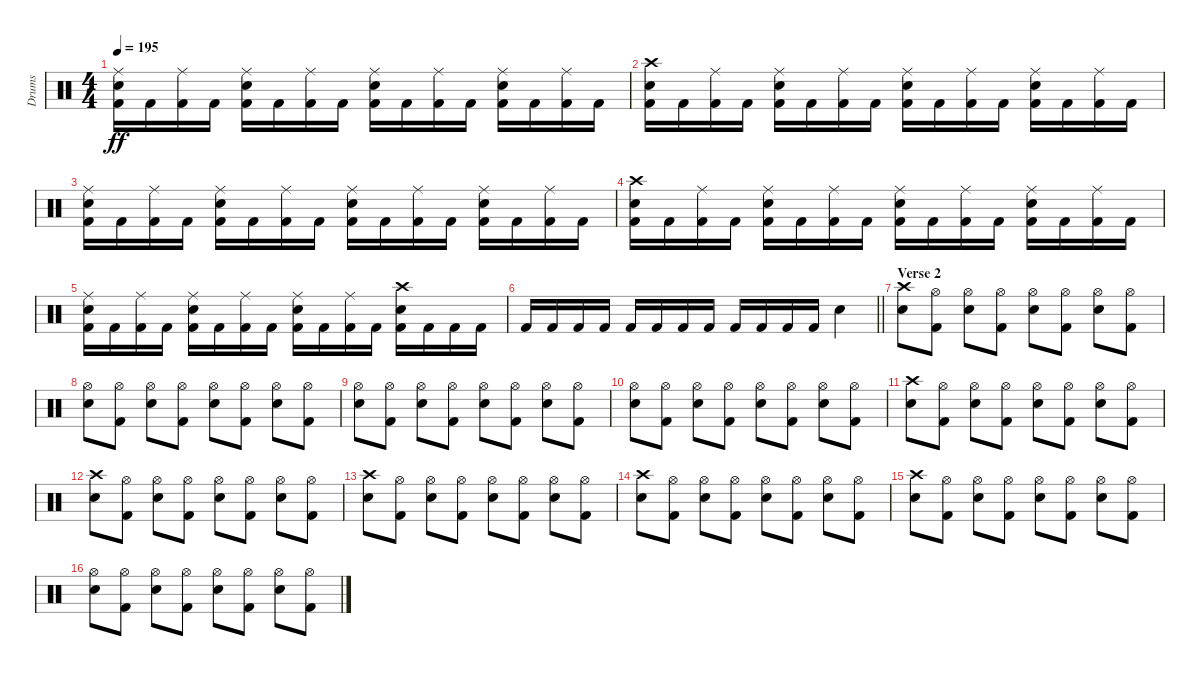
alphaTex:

\track ("Drums" "Drums") {instrument percussion}
\staff {score}
\articulation defaults
\ts (4 4)
\tempo 195
\clef neutral
\ks c
("Ride (middle)" "Snare (hit) 2" "Kick (hit) 2").16{dy ff} "Kick (hit) 2".16 ("Ride (middle)" "Kick (hit) 2").16 "Kick (hit) 2".16 ("Ride (middle)" "Snare (hit) 2" "Kick (hit) 2").16 "Kick (hit) 2".16 ("Ride (middle)" "Kick (hit) 2").16 "Kick (hit) 2".16 ("Ride (middle)" "Snare (hit) 2" "Kick (hit) 2").16 "Kick (hit) 2".16 ("Ride (middle)" "Kick (hit) 2").16 "Kick (hit) 2".16 ("Ride (middle)" "Snare (hit) 2" "Kick (hit) 2").16 "Kick (hit) 2".16 ("Ride (middle)" "Kick (hit) 2").16 "Kick (hit) 2".16 |
("Crash high (hit)" "Snare (hit) 2" "Kick (hit) 2").16 "Kick (hit) 2".16 ("Ride (middle)" "Kick (hit) 2").16 "Kick (hit) 2".16 ("Ride (middle)" "Snare (hit) 2" "Kick (hit) 2").16 "Kick (hit) 2".16 ("Ride (middle)" "Kick (hit) 2").16 "Kick (hit) 2".16 ("Ride (middle)" "Snare (hit) 2" "Kick (hit) 2").16 "Kick (hit) 2".16 ("Ride (middle)" "Kick (hit) 2").16 "Kick (hit) 2".16 ("Ride (middle)" "Snare (hit) 2" "Kick (hit) 2").16 "Kick (hit) 2".16 ("Ride (middle)" "Kick (hit) 2").16 "Kick (hit) 2".16 |
("Ride (middle)" "Snare (hit) 2" "Kick (hit) 2").16 "Kick (hit) 2".16 ("Ride (middle)" "Kick (hit) 2").16 "Kick (hit) 2".16 ("Ride (middle)" "Snare (hit) 2" "Kick (hit) 2").16 "Kick (hit) 2".16 ("Ride (middle)" "Kick (hit) 2").16 "Kick (hit) 2".16 ("Ride (middle)" "Snare (hit) 2" "Kick (hit) 2").16 "Kick (hit) 2".16 ("Ride (middle)" "Kick (hit) 2").16 "Kick (hit) 2".16 ("Ride (middle)" "Snare (hit) 2" "Kick (hit) 2").16 "Kick (hit) 2".16 ("Ride (middle)" "Kick (hit) 2").16 "Kick (hit) 2".16 |
("Crash high (hit)" "Snare (hit) 2" "Kick (hit) 2").16 "Kick (hit) 2".16 ("Ride (middle)" "Kick (hit) 2").16 "Kick (hit) 2".16 ("Ride (middle)" "Snare (hit) 2" "Kick (hit) 2").16 "Kick (hit) 2".16 ("Ride (middle)" "Kick (hit) 2").16 "Kick (hit) 2".16 ("Ride (middle)" "Snare (hit) 2" "Kick (hit) 2").16 "Kick (hit) 2".16 ("Ride (middle)" "Kick (hit) 2").16 "Kick (hit) 2".16 ("Ride (middle)" "Snare (hit) 2" "Kick (hit) 2").16 "Kick (hit) 2".16 ("Ride (middle)" "Kick (hit) 2").16 "Kick (hit) 2".16 |
("Ride (middle)" "Snare (hit) 2" "Kick (hit) 2").16 "Kick (hit) 2".16 ("Ride (middle)" "Kick (hit) 2").16 "Kick (hit) 2".16 ("Ride (middle)" "Snare (hit) 2" "Kick (hit) 2").16 "Kick (hit) 2".16 ("Ride (middle)" "Kick (hit) 2").16 "Kick (hit) 2".16 ("Ride (middle)" "Snare (hit) 2" "Kick (hit) 2").16 "Kick (hit) 2".16 ("Ride (middle)" "Kick (hit) 2").16 "Kick (hit) 2".16 ("Crash high (hit)" "Snare (hit) 2" "Kick (hit) 2").16 "Kick (hit) 2".16 "Kick (hit) 2".16 "Kick (hit) 2".16 |
\barLineRight lightlight "Kick (hit) 2".16 "Kick (hit) 2".16 "Kick (hit) 2".16 "Kick (hit) 2".16 "Kick (hit) 2".16 "Kick (hit) 2".16 "Kick (hit) 2".16 "Kick (hit) 2".16 "Kick (hit) 2".16 "Kick (hit) 2".16 "Kick (hit) 2".16 "Kick (hit) 2".16 "Snare (hit) 2".4
|
\section ("" "Verse 2")
("Crash high (hit)" "Snare (hit) 2").8 ("Hi-Hat (open)" "Kick (hit) 2").8 ("Hi-Hat (open)" "Snare (hit) 2").8 ("Hi-Hat (open)" "Kick (hit) 2").8 ("Hi-Hat (open)" "Snare (hit) 2").8 ("Hi-Hat (open)" "Kick (hit) 2").8 ("Hi-Hat (open)" "Snare (hit) 2").8 ("Hi-Hat (open)" "Kick (hit) 2").8 |
("Hi-Hat (open)" "Snare (hit) 2").8 ("Hi-Hat (open)" "Kick (hit) 2").8 ("Hi-Hat (open)" "Snare (hit) 2").8 ("Hi-Hat (open)" "Kick (hit) 2").8 ("Hi-Hat (open)" "Snare (hit) 2").8 ("Hi-Hat (open)" "Kick (hit) 2").8 ("Hi-Hat (open)" "Snare (hit) 2").8 ("Hi-Hat (open)" "Kick (hit) 2").8 |
("Hi-Hat (open)" "Snare (hit) 2").8 ("Hi-Hat (open)" "Kick (hit) 2").8 ("Hi-Hat (open)" "Snare (hit) 2").8 ("Hi-Hat (open)" "Kick (hit) 2").8 ("Hi-Hat (open)" "Snare (hit) 2").8 ("Hi-Hat (open)" "Kick (hit) 2").8 ("Hi-Hat (open)" "Snare (hit) 2").8 ("Hi-Hat (open)" "Kick (hit) 2").8 |
("Hi-Hat (open)" "Snare (hit) 2").8 ("Hi-Hat (open)" "Kick (hit) 2").8 ("Hi-Hat (open)" "Snare (hit) 2").8 ("Hi-Hat (open)" "Kick (hit) 2").8 ("Hi-Hat (open)" "Snare (hit) 2").8 ("Hi-Hat (open)" "Kick (hit) 2").8 ("Hi-Hat (open)" "Snare (hit) 2").8 ("Hi-Hat (open)" "Kick (hit) 2").8 |
("Crash high (hit)" "Snare (hit) 2").8 ("Hi-Hat (open)" "Kick (hit) 2").8 ("Hi-Hat (open)" "Snare (hit) 2").8 ("Hi-Hat (open)" "Kick (hit) 2").8 ("Hi-Hat (open)" "Snare (hit) 2").8 ("Hi-Hat (open)" "Kick (hit) 2").8 ("Hi-Hat (open)" "Snare (hit) 2").8 ("Hi-Hat (open)" "Kick (hit) 2").8 |
("Crash high (hit)" "Snare (hit) 2").8 ("Hi-Hat (open)" "Kick (hit) 2").8 ("Hi-Hat (open)" "Snare (hit) 2").8 ("Hi-Hat (open)" "Kick (hit) 2").8 ("Hi-Hat (open)" "Snare (hit) 2").8 ("Hi-Hat (open)" "Kick (hit) 2").8 ("Hi-Hat (open)" "Snare (hit) 2").8 ("Hi-Hat (open)" "Kick (hit) 2").8 |
("Crash high (hit)" "Snare (hit) 2").8 ("Hi-Hat (open)" "Kick (hit) 2").8 ("Hi-Hat (open)" "Snare (hit) 2").8 ("Hi-Hat (open)" "Kick (hit) 2").8 ("Hi-Hat (open)" "Snare (hit) 2").8 ("Hi-Hat (open)" "Kick (hit) 2").8 ("Hi-Hat (open)" "Snare (hit) 2").8 ("Hi-Hat (open)" "Kick (hit) 2").8 |
("Crash high (hit)" "Snare (hit) 2").8 ("Hi-Hat (open)" "Kick (hit) 2").8 ("Hi-Hat (open)" "Snare (hit) 2").8 ("Hi-Hat (open)" "Kick (hit) 2").8 ("Hi-Hat (open)" "Snare (hit) 2").8 ("Hi-Hat (open)" "Kick (hit) 2").8 ("Hi-Hat (open)" "Snare (hit) 2").8 ("Hi-Hat (open)" "Kick (hit) 2").8 |
("Crash high (hit)" "Snare (hit) 2").8 ("Hi-Hat (open)" "Kick (hit) 2").8 ("Hi-Hat (open)" "Snare (hit) 2").8 ("Hi-Hat (open)" "Kick (hit) 2").8 ("Hi-Hat (open)" "Snare (hit) 2").8 ("Hi-Hat (open)" "Kick (hit) 2").8 ("Hi-Hat (open)" "Snare (hit) 2").8 ("Hi-Hat (open)" "Kick (hit) 2").8 |
("Hi-Hat (open)" "Snare (hit) 2").8 ("Hi-Hat (open)" "Kick (hit) 2").8 ("Hi-Hat (open)" "Snare (hit) 2").8 ("Hi-Hat (open)" "Kick (hit) 2").8 ("Hi-Hat (open)" "Snare (hit) 2").8 ("Hi-Hat (open)" "Kick (hit) 2").8 ("Hi-Hat (open)" "Snare (hit) 2").8 ("Hi-Hat (open)" "Kick (hit) 2").8
